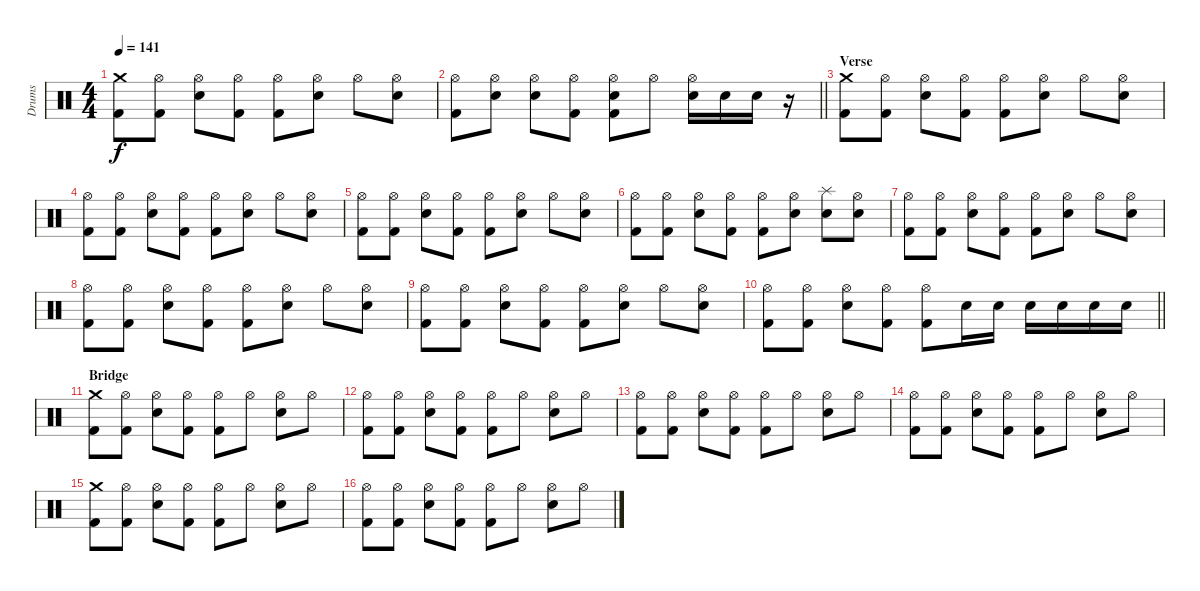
\track ("Drums" "Drums") {instrument percussion}
\staff {score}
\articulation defaults
\ts (4 4)
\tempo 141
\clef neutral
\ks c
("Crash medium (hit)" "Kick (hit) 2").8{dy f} ("Hi-Hat (open)" "Kick (hit) 2").8 ("Hi-Hat (open)" "Electric Snare (hit)").8 ("Hi-Hat (open)" "Kick (hit) 2").8 ("Hi-Hat (open)" "Kick (hit) 2").8 ("Hi-Hat (open)" "Electric Snare (hit)").8 "Hi-Hat (open)".8 ("Hi-Hat (open)" "Electric Snare (hit)").8 |
\barLineRight lightlight
("Hi-Hat (open)" "Kick (hit) 2").8 ("Hi-Hat (open)" "Electric Snare (hit)").8 ("Hi-Hat (open)" "Electric Snare (hit)").8 ("Hi-Hat (open)" "Kick (hit) 2").8 ("Hi-Hat (open)" "Electric Snare (hit)" "Kick (hit) 2").8 "Hi-Hat (open)".8 ("Hi-Hat (open)" "Electric Snare (hit)").16 "Electric Snare (hit)".16 "Electric Snare (hit)".16 r.16 |
\section ("" "Verse")
("Crash medium (hit)" "Kick (hit) 2").8 ("Hi-Hat (open)" "Kick (hit) 2").8 ("Hi-Hat (open)" "Electric Snare (hit)").8 ("Hi-Hat (open)" "Kick (hit) 2").8 ("Hi-Hat (open)" "Kick (hit) 2").8 ("Hi-Hat (open)" "Electric Snare (hit)").8 "Hi-Hat (open)".8 ("Hi-Hat (open)" "Electric Snare (hit)").8 |
("Hi-Hat (open)" "Kick (hit) 2").8 ("Hi-Hat (open)" "Kick (hit) 2").8 ("Hi-Hat (open)" "Electric Snare (hit)").8 ("Hi-Hat (open)" "Kick (hit) 2").8 ("Hi-Hat (open)" "Kick (hit) 2").8 ("Hi-Hat (open)" "Electric Snare (hit)").8 "Hi-Hat (open)".8 ("Hi-Hat (open)" "Electric Snare (hit)").8 |
("Hi-Hat (open)" "Kick (hit) 2").8 ("Hi-Hat (open)" "Kick (hit) 2").8 ("Hi-Hat (open)" "Electric Snare (hit)").8 ("Hi-Hat (open)" "Kick (hit) 2").8 ("Hi-Hat (open)" "Kick (hit) 2").8 ("Hi-Hat (open)" "Electric Snare (hit)").8 "Hi-Hat (open)".8 ("Hi-Hat (open)" "Electric Snare (hit)").8 |
("Hi-Hat (open)" "Kick (hit) 2").8 ("Hi-Hat (open)" "Kick (hit) 2").8 ("Hi-Hat (open)" "Electric Snare (hit)").8 ("Hi-Hat (open)" "Kick (hit) 2").8 ("Hi-Hat (open)" "Kick (hit) 2").8 ("Hi-Hat (open)" "Electric Snare (hit)").8 ("Splash (hit)" "Electric Snare (hit)").8 ("Hi-Hat (open)" "Electric Snare (hit)").8 |
("Hi-Hat (open)" "Kick (hit) 2").8 ("Hi-Hat (open)" "Kick (hit) 2").8 ("Hi-Hat (open)" "Electric Snare (hit)").8 ("Hi-Hat (open)" "Kick (hit) 2").8 ("Hi-Hat (open)" "Kick (hit) 2").8 ("Hi-Hat (open)" "Electric Snare (hit)").8 "Hi-Hat (open)".8 ("Hi-Hat (open)" "Electric Snare (hit)").8 |
("Hi-Hat (open)" "Kick (hit) 2").8 ("Hi-Hat (open)" "Kick (hit) 2").8 ("Hi-Hat (open)" "Electric Snare (hit)").8 ("Hi-Hat (open)" "Kick (hit) 2").8 ("Hi-Hat (open)" "Kick (hit) 2").8 ("Hi-Hat (open)" "Electric Snare (hit)").8 "Hi-Hat (open)".8 ("Hi-Hat (open)" "Electric Snare (hit)").8 |
("Hi-Hat (open)" "Kick (hit) 2").8 ("Hi-Hat (open)" "Kick (hit) 2").8 ("Hi-Hat (open)" "Electric Snare (hit)").8 ("Hi-Hat (open)" "Kick (hit) 2").8 ("Hi-Hat (open)" "Kick (hit) 2").8 ("Hi-Hat (open)" "Electric Snare (hit)").8 "Hi-Hat (open)".8 ("Hi-Hat (open)" "Electric Snare (hit)").8 |
\barLineRight lightlight
("Hi-Hat (open)" "Kick (hit) 2").8 ("Hi-Hat (open)" "Kick (hit) 2").8 ("Hi-Hat (open)" "Electric Snare (hit)").8 ("Hi-Hat (open)" "Kick (hit) 2").8 ("Hi-Hat (open)" "Kick (hit) 2").8 "Electric Snare (hit)".16 "Electric Snare (hit)".16 "Electric Snare (hit)".16 "Electric Snare (hit)".16 "Electric Snare (hit)".16 "Electric Snare (hit)".16 |
\section ("" "Bridge")
("Crash medium (hit)" "Kick (hit) 2").8 ("Hi-Hat (open)" "Kick (hit) 2").8 ("Hi-Hat (open)" "Electric Snare (hit)").8 ("Hi-Hat (open)" "Kick (hit) 2").8 ("Hi-Hat (open)" "Kick (hit) 2").8 "Hi-Hat (open)".8 ("Hi-Hat (open)" "Electric Snare (hit)").8 "Hi-Hat (open)".8 |
("Hi-Hat (open)" "Kick (hit) 2").8 ("Hi-Hat (open)" "Kick (hit) 2").8 ("Hi-Hat (open)" "Electric Snare (hit)").8 ("Hi-Hat (open)" "Kick (hit) 2").8 ("Hi-Hat (open)" "Kick (hit) 2").8 "Hi-Hat (open)".8 ("Hi-Hat (open)" "Electric Snare (hit)").8 "Hi-Hat (open)".8 |
("Hi-Hat (open)" "Kick (hit) 2").8 ("Hi-Hat (open)" "Kick (hit) 2").8 ("Hi-Hat (open)" "Electric Snare (hit)").8 ("Hi-Hat (open)" "Kick (hit) 2").8 ("Hi-Hat (open)" "Kick (hit) 2").8 "Hi-Hat (open)".8 ("Hi-Hat (open)" "Electric Snare (hit)").8 "Hi-Hat (open)".8 |
("Hi-Hat (open)" "Kick (hit) 2").8 ("Hi-Hat (open)" "Kick (hit) 2").8 ("Hi-Hat (open)" "Electric Snare (hit)").8 ("Hi-Hat (open)" "Kick (hit) 2").8 ("Hi-Hat (open)" "Kick (hit) 2").8 "Hi-Hat (open)".8 ("Hi-Hat (open)" "Electric Snare (hit)").8 "Hi-Hat (open)".8 |
("Crash medium (hit)" "Kick (hit) 2").8 ("Hi-Hat (open)" "Kick (hit) 2").8 ("Hi-Hat (open)" "Electric Snare (hit)").8 ("Hi-Hat (open)" "Kick (hit) 2").8 ("Hi-Hat (open)" "Kick (hit) 2").8 "Hi-Hat (open)".8 ("Hi-Hat (open)" "Electric Snare (hit)").8 "Hi-Hat (open)".8 |
("Hi-Hat (open)" "Kick (hit) 2").8 ("Hi-Hat (open)" "Kick (hit) 2").8 ("Hi-Hat (open)" "Electric Snare (hit)").8 ("Hi-Hat (open)" "Kick (hit) 2").8 ("Hi-Hat (open)" "Kick (hit) 2").8 "Hi-Hat (open)".8 ("Hi-Hat (open)" "Electric Snare (hit)").8 "Hi-Hat (open)".8
